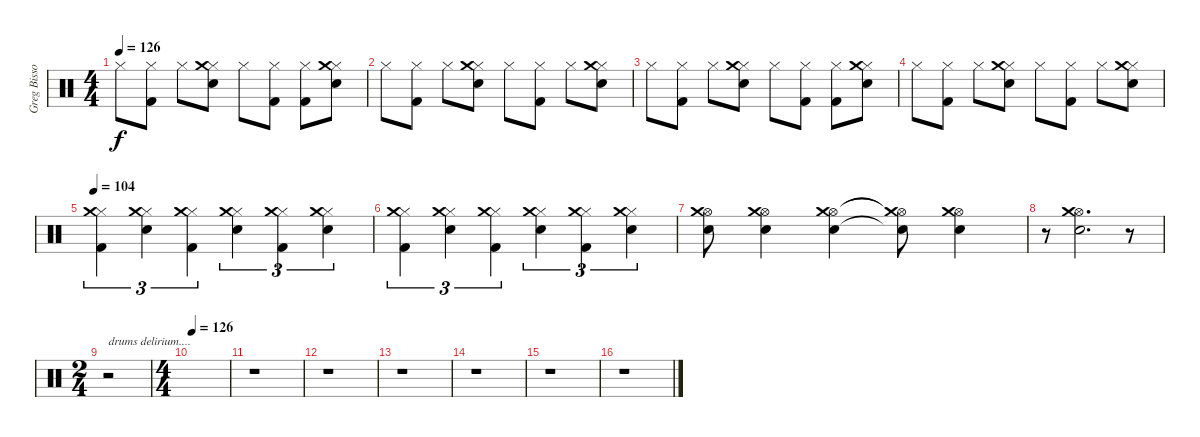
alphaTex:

\track ("Greg Bissonette - drums" "Greg Bisso") {instrument percussion}
\staff {score}
\articulation defaults
\ts (4 4)
\tempo 126
\clef neutral
\ks c "Hi-Hat (closed)".8{dy f}
("Hi-Hat (closed)" "Kick (hit) 2").8 "Hi-Hat (closed)".8 ("Hi-Hat (closed)" "Snare (hit) 2" "Crash medium (hit)").8 "Hi-Hat (closed)".8 ("Hi-Hat (closed)" "Kick (hit) 2").8 ("Hi-Hat (closed)" "Kick (hit) 2").8 ("Hi-Hat (closed)" "Snare (hit) 2" "Crash medium (hit)").8 |
"Hi-Hat (closed)".8 ("Hi-Hat (closed)" "Kick (hit) 2").8 "Hi-Hat (closed)".8 ("Hi-Hat (closed)" "Snare (hit) 2" "Crash medium (hit)").8 "Hi-Hat (closed)".8 ("Hi-Hat (closed)" "Kick (hit) 2").8 "Hi-Hat (closed)".8 ("Hi-Hat (closed)" "Snare (hit) 2" "Crash medium (hit)").8 |
"Hi-Hat (closed)".8 ("Hi-Hat (closed)" "Kick (hit) 2").8 "Hi-Hat (closed)".8 ("Hi-Hat (closed)" "Snare (hit) 2" "Crash medium (hit)").8 "Hi-Hat (closed)".8 ("Hi-Hat (closed)" "Kick (hit) 2").8 ("Hi-Hat (closed)" "Kick (hit) 2").8 ("Hi-Hat (closed)" "Snare (hit) 2" "Crash medium (hit)").8 |
"Hi-Hat (closed)".8 ("Hi-Hat (closed)" "Kick (hit) 2").8 "Hi-Hat (closed)".8 ("Hi-Hat (closed)" "Snare (hit) 2" "Crash medium (hit)").8 "Hi-Hat (closed)".8 ("Hi-Hat (closed)" "Kick (hit) 2").8 "Hi-Hat (closed)".8 ("Hi-Hat (closed)" "Snare (hit) 2" "Crash medium (hit)").8 |
\tempo 104
("Hi-Hat (closed)" "Crash medium (hit)" "Kick (hit) 2").4{tu (3 2)} ("Hi-Hat (closed)" "Snare (hit) 2" "Crash medium (hit)").4{tu (3 2)} ("Hi-Hat (closed)" "Crash medium (hit)" "Kick (hit) 2").4{tu (3 2)} ("Hi-Hat (closed)" "Snare (hit) 2" "Crash medium (hit)").4{tu (3 2)} ("Hi-Hat (closed)" "Crash medium (hit)" "Kick (hit) 2").4{tu (3 2)} ("Hi-Hat (closed)" "Snare (hit) 2" "Crash medium (hit)").4{tu (3 2)} |
("Hi-Hat (closed)" "Crash medium (hit)" "Kick (hit) 2").4{tu (3 2)} ("Hi-Hat (closed)" "Snare (hit) 2" "Crash medium (hit)").4{tu (3 2)} ("Hi-Hat (closed)" "Crash medium (hit)" "Kick (hit) 2").4{tu (3 2)} ("Hi-Hat (closed)" "Snare (hit) 2" "Crash medium (hit)").4{tu (3 2)} ("Hi-Hat (closed)" "Crash medium (hit)" "Kick (hit) 2").4{tu (3 2)} ("Hi-Hat (closed)" "Snare (hit) 2" "Crash medium (hit)").4{tu (3 2)} |
("Hi-Hat (open)" "Snare (hit) 2" "Crash medium (hit)").8 ("Hi-Hat (open)" "Snare (hit) 2" "Crash medium (hit)").4 ("Hi-Hat (open)" "Snare (hit) 2" "Crash medium (hit)").4 ("Hi-Hat (open)"{t} "Snare (hit) 2"{t} "Crash medium (hit)"{t}).8 ("Hi-Hat (open)" "Snare (hit) 2" "Crash medium (hit)").4 |
r.8 ("Hi-Hat (open)" "Snare (hit) 2" "Crash medium (hit)").2{d} r.8 |
\ts (2 4)
r.2{txt "drums delirium...."} |
\ts (4 4)
\tempo 126
|
r.1 |
r.1 |
r.1 |
r.1 |
r.1 |
r.1
